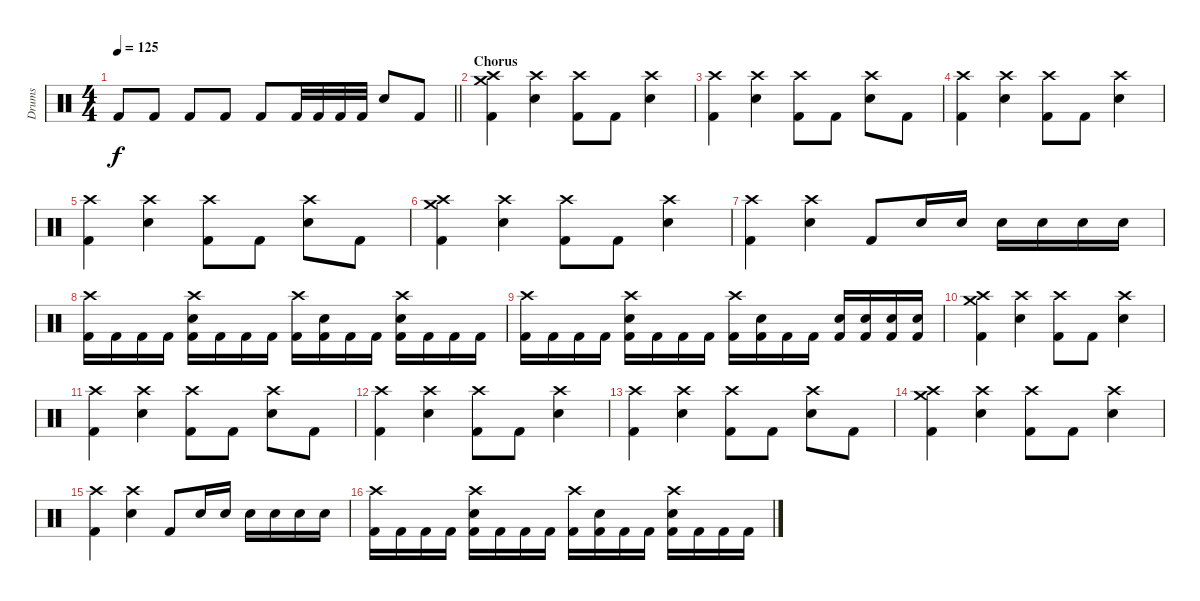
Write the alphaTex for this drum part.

\track ("Drums" "Drums") {instrument percussion}
\staff {score}
\articulation defaults
\ts (4 4)
\tempo 125
\clef neutral
\barLineRight lightlight
\ks c "Kick (hit) 2".8{dy f} "Kick (hit) 2".8 "Kick (hit) 2".8 "Kick (hit) 2".8 "Kick (hit) 2".8 "Kick (hit) 2".32 "Kick (hit) 2".32 "Kick (hit) 2".32 "Kick (hit) 2".32 "Snare (hit) 2".8 "Kick (hit) 2".8
|
\section ("" "Chorus")
("Crash medium (hit)" "Crash high (hit)" "Kick (hit) 2").4 ("Crash high (hit)" "Snare (hit) 2").4 ("Crash high (hit)" "Kick (hit) 2").8 "Kick (hit) 2".8 ("Crash high (hit)" "Snare (hit) 2").4 |
("Crash high (hit)" "Kick (hit) 2").4 ("Crash high (hit)" "Snare (hit) 2").4 ("Crash high (hit)" "Kick (hit) 2").8 "Kick (hit) 2".8 ("Crash high (hit)" "Snare (hit) 2").8 "Kick (hit) 2".8 |
("Crash high (hit)" "Kick (hit) 2").4 ("Crash high (hit)" "Snare (hit) 2").4 ("Crash high (hit)" "Kick (hit) 2").8 "Kick (hit) 2".8 ("Crash high (hit)" "Snare (hit) 2").4 |
("Crash high (hit)" "Kick (hit) 2").4 ("Crash high (hit)" "Snare (hit) 2").4 ("Crash high (hit)" "Kick (hit) 2").8 "Kick (hit) 2".8 ("Crash high (hit)" "Snare (hit) 2").8 "Kick (hit) 2".8 |
("Crash medium (hit)" "Crash high (hit)" "Kick (hit) 2").4 ("Crash high (hit)" "Snare (hit) 2").4 ("Crash high (hit)" "Kick (hit) 2").8 "Kick (hit) 2".8 ("Crash high (hit)" "Snare (hit) 2").4 |
("Crash high (hit)" "Kick (hit) 2").4 ("Crash high (hit)" "Snare (hit) 2").4 "Kick (hit) 2".8 "Snare (hit) 2".16 "Snare (hit) 2".16 "Snare (hit) 2".16 "Snare (hit) 2".16 "Snare (hit) 2".16 "Snare (hit) 2".16 |
("Crash high (hit)" "Kick (hit) 2").16 "Kick (hit) 2".16 "Kick (hit) 2".16 "Kick (hit) 2".16 ("Crash high (hit)" "Snare (hit) 2" "Kick (hit) 2").16 "Kick (hit) 2".16 "Kick (hit) 2".16 "Kick (hit) 2".16 ("Crash high (hit)" "Kick (hit) 2").16 ("Snare (hit) 2" "Kick (hit) 2").16 "Kick (hit) 2".16 "Kick (hit) 2".16 ("Crash high (hit)" "Snare (hit) 2" "Kick (hit) 2").16 "Kick (hit) 2".16 "Kick (hit) 2".16 "Kick (hit) 2".16 |
("Crash high (hit)" "Kick (hit) 2").16 "Kick (hit) 2".16 "Kick (hit) 2".16 "Kick (hit) 2".16 ("Crash high (hit)" "Snare (hit) 2" "Kick (hit) 2").16 "Kick (hit) 2".16 "Kick (hit) 2".16 "Kick (hit) 2".16 ("Crash high (hit)" "Kick (hit) 2").16 ("Snare (hit) 2" "Kick (hit) 2").16 "Kick (hit) 2".16 "Kick (hit) 2".16 ("Snare (hit) 2" "Kick (hit) 2").16 ("Snare (hit) 2" "Kick (hit) 2").16 ("Snare (hit) 2" "Kick (hit) 2").16 ("Snare (hit) 2" "Kick (hit) 2").16 |
("Crash medium (hit)" "Crash high (hit)" "Kick (hit) 2").4 ("Crash high (hit)" "Snare (hit) 2").4 ("Crash high (hit)" "Kick (hit) 2").8 "Kick (hit) 2".8 ("Crash high (hit)" "Snare (hit) 2").4 |
("Crash high (hit)" "Kick (hit) 2").4 ("Crash high (hit)" "Snare (hit) 2").4 ("Crash high (hit)" "Kick (hit) 2").8 "Kick (hit) 2".8 ("Crash high (hit)" "Snare (hit) 2").8 "Kick (hit) 2".8 |
("Crash high (hit)" "Kick (hit) 2").4 ("Crash high (hit)" "Snare (hit) 2").4 ("Crash high (hit)" "Kick (hit) 2").8 "Kick (hit) 2".8 ("Crash high (hit)" "Snare (hit) 2").4 |
("Crash high (hit)" "Kick (hit) 2").4 ("Crash high (hit)" "Snare (hit) 2").4 ("Crash high (hit)" "Kick (hit) 2").8 "Kick (hit) 2".8 ("Crash high (hit)" "Snare (hit) 2").8 "Kick (hit) 2".8 |
("Crash medium (hit)" "Crash high (hit)" "Kick (hit) 2").4 ("Crash high (hit)" "Snare (hit) 2").4 ("Crash high (hit)" "Kick (hit) 2").8 "Kick (hit) 2".8 ("Crash high (hit)" "Snare (hit) 2").4 |
("Crash high (hit)" "Kick (hit) 2").4 ("Crash high (hit)" "Snare (hit) 2").4 "Kick (hit) 2".8 "Snare (hit) 2".16 "Snare (hit) 2".16 "Snare (hit) 2".16 "Snare (hit) 2".16 "Snare (hit) 2".16 "Snare (hit) 2".16 |
("Crash high (hit)" "Kick (hit) 2").16 "Kick (hit) 2".16 "Kick (hit) 2".16 "Kick (hit) 2".16 ("Crash high (hit)" "Snare (hit) 2" "Kick (hit) 2").16 "Kick (hit) 2".16 "Kick (hit) 2".16 "Kick (hit) 2".16 ("Crash high (hit)" "Kick (hit) 2").16 ("Snare (hit) 2" "Kick (hit) 2").16 "Kick (hit) 2".16 "Kick (hit) 2".16 ("Crash high (hit)" "Snare (hit) 2" "Kick (hit) 2").16 "Kick (hit) 2".16 "Kick (hit) 2".16 "Kick (hit) 2".16
